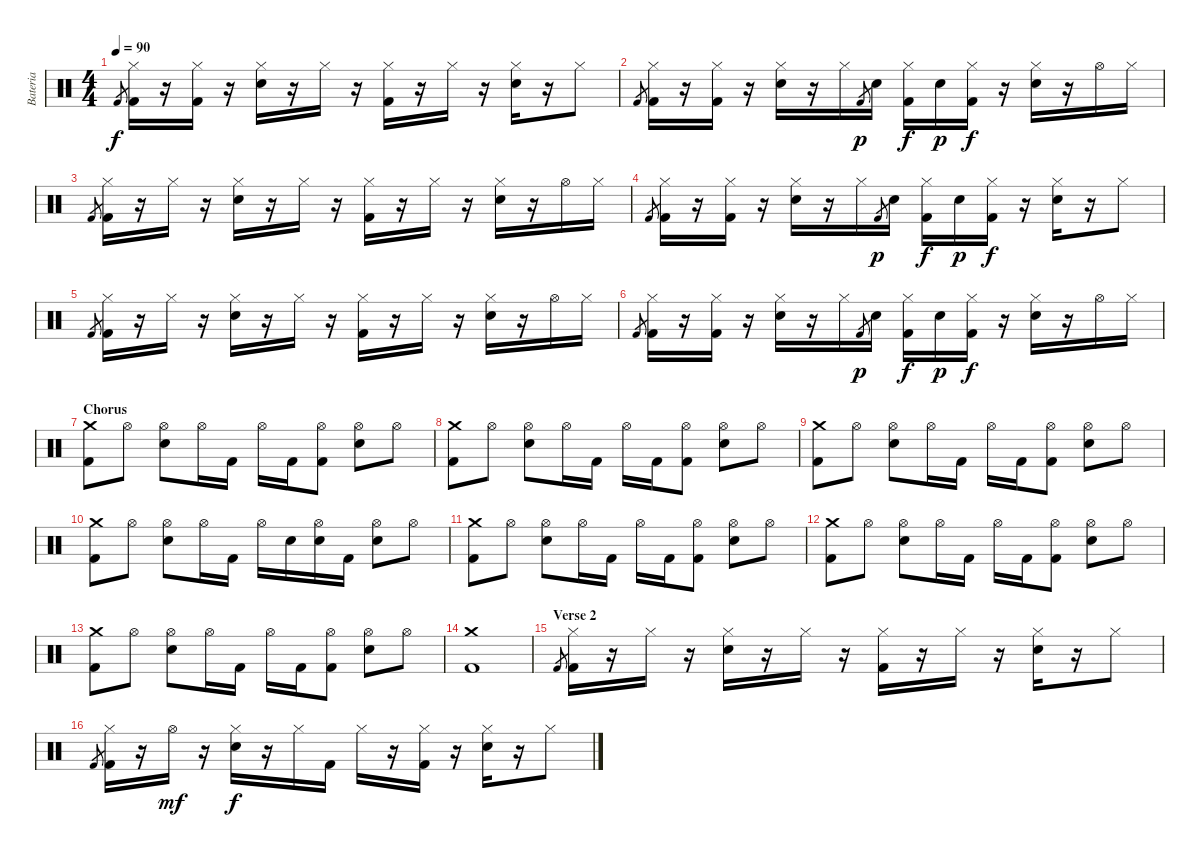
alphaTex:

\track ("Bateria" "Bateria") {instrument percussion}
\staff {score}
\articulation defaults
\ts (4 4)
\tempo 90
\clef neutral
\ks c "Kick (hit) 2".8{gr dy f}
("Hi-Hat (closed)" "Kick (hit) 2").16 r.16 ("Hi-Hat (closed)" "Kick (hit) 2").16 r.16 ("Hi-Hat (closed)" "Electric Snare (hit)").16 r.16 "Hi-Hat (closed)".16 r.16 ("Hi-Hat (closed)" "Kick (hit) 2").16 r.16 "Hi-Hat (closed)".16 r.16 ("Hi-Hat (closed)" "Electric Snare (hit)").16 r.16 "Hi-Hat (closed)".8 |
"Kick (hit) 2".8{gr} ("Hi-Hat (closed)" "Kick (hit) 2").16 r.16 ("Hi-Hat (closed)" "Kick (hit) 2").16 r.16 ("Hi-Hat (closed)" "Electric Snare (hit)").16 r.16 "Hi-Hat (closed)".16 "Kick (hit) 2".8{gr dy p} "Electric Snare (hit)".16 ("Hi-Hat (closed)" "Kick (hit) 2").16{dy f} "Electric Snare (hit)".16{dy p} ("Hi-Hat (closed)" "Kick (hit) 2").16{dy f} r.16 ("Hi-Hat (closed)" "Electric Snare (hit)").16 r.16 "Hi-Hat (open)".16 "Hi-Hat (closed)".16 |
"Kick (hit) 2".8{gr} ("Hi-Hat (closed)" "Kick (hit) 2").16 r.16 "Hi-Hat (closed)".16 r.16 ("Hi-Hat (closed)" "Electric Snare (hit)").16 r.16 "Hi-Hat (closed)".16 r.16 ("Hi-Hat (closed)" "Kick (hit) 2").16 r.16 "Hi-Hat (closed)".16 r.16 ("Hi-Hat (closed)" "Electric Snare (hit)").16 r.16 "Hi-Hat (open)".16 "Hi-Hat (closed)".16 |
"Kick (hit) 2".8{gr} ("Hi-Hat (closed)" "Kick (hit) 2").16 r.16 ("Hi-Hat (closed)" "Kick (hit) 2").16 r.16 ("Hi-Hat (closed)" "Electric Snare (hit)").16 r.16 "Hi-Hat (closed)".16 "Kick (hit) 2".8{gr dy p} "Electric Snare (hit)".16 ("Hi-Hat (closed)" "Kick (hit) 2").16{dy f} "Electric Snare (hit)".16{dy p} ("Hi-Hat (closed)" "Kick (hit) 2").16{dy f} r.16 ("Hi-Hat (closed)" "Electric Snare (hit)").16 r.16 "Hi-Hat (closed)".8 |
"Kick (hit) 2".8{gr} ("Hi-Hat (closed)" "Kick (hit) 2").16 r.16 "Hi-Hat (closed)".16 r.16 ("Hi-Hat (closed)" "Electric Snare (hit)").16 r.16 "Hi-Hat (closed)".16 r.16 ("Hi-Hat (closed)" "Kick (hit) 2").16 r.16 "Hi-Hat (closed)".16 r.16 ("Hi-Hat (closed)" "Electric Snare (hit)").16 r.16 "Hi-Hat (open)".16 "Hi-Hat (closed)".16 |
"Kick (hit) 2".8{gr} ("Hi-Hat (closed)" "Kick (hit) 2").16 r.16 ("Hi-Hat (closed)" "Kick (hit) 2").16 r.16 ("Hi-Hat (closed)" "Electric Snare (hit)").16 r.16 "Hi-Hat (closed)".16 "Kick (hit) 2".8{gr dy p} "Electric Snare (hit)".16 ("Hi-Hat (closed)" "Kick (hit) 2").16{dy f} "Electric Snare (hit)".16{dy p} ("Hi-Hat (closed)" "Kick (hit) 2").16{dy f} r.16 ("Hi-Hat (closed)" "Electric Snare (hit)").16 r.16 "Hi-Hat (open)".16 "Hi-Hat (closed)".16 |
\section ("" "Chorus")
("Crash medium (hit)" "Kick (hit) 2").8 "Hi-Hat (open)".8 ("Hi-Hat (open)" "Electric Snare (hit)").8 "Hi-Hat (open)".16 "Kick (hit) 2".16 "Hi-Hat (open)".16 "Kick (hit) 2".16 ("Hi-Hat (open)" "Kick (hit) 2").8 ("Hi-Hat (open)" "Electric Snare (hit)").8 "Hi-Hat (open)".8 |
("Crash medium (hit)" "Kick (hit) 2").8 "Hi-Hat (open)".8 ("Hi-Hat (open)" "Electric Snare (hit)").8 "Hi-Hat (open)".16 "Kick (hit) 2".16 "Hi-Hat (open)".16 "Kick (hit) 2".16 ("Hi-Hat (open)" "Kick (hit) 2").8 ("Hi-Hat (open)" "Electric Snare (hit)").8 "Hi-Hat (open)".8 |
("Crash medium (hit)" "Kick (hit) 2").8 "Hi-Hat (open)".8 ("Hi-Hat (open)" "Electric Snare (hit)").8 "Hi-Hat (open)".16 "Kick (hit) 2".16 "Hi-Hat (open)".16 "Kick (hit) 2".16 ("Hi-Hat (open)" "Kick (hit) 2").8 ("Hi-Hat (open)" "Electric Snare (hit)").8 "Hi-Hat (open)".8 |
("Crash medium (hit)" "Kick (hit) 2").8 "Hi-Hat (open)".8 ("Hi-Hat (open)" "Electric Snare (hit)").8 "Hi-Hat (open)".16 "Kick (hit) 2".16 "Hi-Hat (open)".16 "Electric Snare (hit)".16 ("Hi-Hat (open)" "Electric Snare (hit)").16 "Kick (hit) 2".16 ("Hi-Hat (open)" "Electric Snare (hit)").8 "Hi-Hat (open)".8 |
("Crash medium (hit)" "Kick (hit) 2").8 "Hi-Hat (open)".8 ("Hi-Hat (open)" "Electric Snare (hit)").8 "Hi-Hat (open)".16 "Kick (hit) 2".16 "Hi-Hat (open)".16 "Kick (hit) 2".16 ("Hi-Hat (open)" "Kick (hit) 2").8 ("Hi-Hat (open)" "Electric Snare (hit)").8 "Hi-Hat (open)".8 |
("Crash medium (hit)" "Kick (hit) 2").8 "Hi-Hat (open)".8 ("Hi-Hat (open)" "Electric Snare (hit)").8 "Hi-Hat (open)".16 "Kick (hit) 2".16 "Hi-Hat (open)".16 "Kick (hit) 2".16 ("Hi-Hat (open)" "Kick (hit) 2").8 ("Hi-Hat (open)" "Electric Snare (hit)").8 "Hi-Hat (open)".8 |
("Crash medium (hit)" "Kick (hit) 2").8 "Hi-Hat (open)".8 ("Hi-Hat (open)" "Electric Snare (hit)").8 "Hi-Hat (open)".16 "Kick (hit) 2".16 "Hi-Hat (open)".16 "Kick (hit) 2".16 ("Hi-Hat (open)" "Kick (hit) 2").8 ("Hi-Hat (open)" "Electric Snare (hit)").8 "Hi-Hat (open)".8 |
("Crash medium (hit)" "Kick (hit) 2").1 |
\section ("" "Verse 2")
"Kick (hit) 2".8{gr} ("Hi-Hat (closed)" "Kick (hit) 2").16 r.16 "Hi-Hat (closed)".16 r.16 ("Hi-Hat (closed)" "Electric Snare (hit)").16 r.16 "Hi-Hat (closed)".16 r.16 ("Hi-Hat (closed)" "Kick (hit) 2").16 r.16 "Hi-Hat (closed)".16 r.16 ("Hi-Hat (closed)" "Electric Snare (hit)").16 r.16 "Hi-Hat (closed)".8 |
"Kick (hit) 2".8{gr} ("Hi-Hat (closed)" "Kick (hit) 2").16 r.16 "Hi-Hat (open)".16{dy mf} r.16 ("Hi-Hat (closed)" "Electric Snare (hit)").16{dy f} r.16 "Hi-Hat (closed)".16 "Kick (hit) 2".16 "Hi-Hat (closed)".16 r.16 ("Hi-Hat (closed)" "Kick (hit) 2").16 r.16 ("Hi-Hat (closed)" "Electric Snare (hit)").16 r.16 "Hi-Hat (closed)".8
